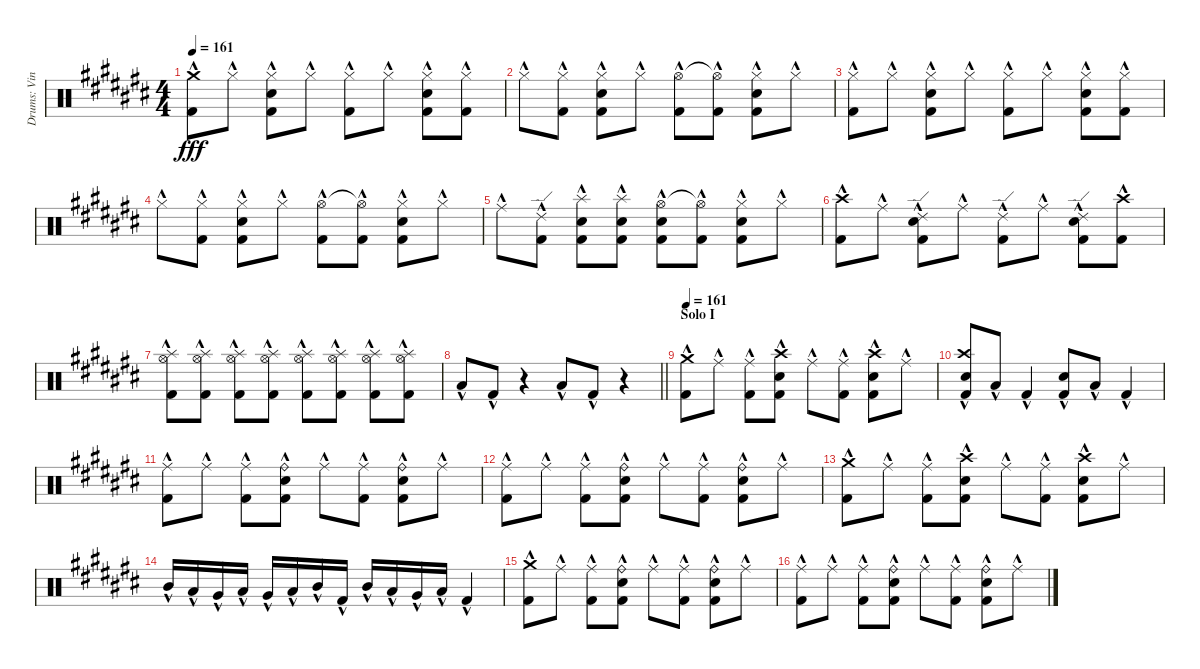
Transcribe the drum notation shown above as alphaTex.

\track ("Drums: Vinny" "Drums: Vin") {instrument percussion}
\staff {score}
\articulation defaults
\ts (4 4)
\tempo 161
\clef neutral
\ks c#
("Crash medium (hit)"{hac} "Kick (hit) 2"{hac}).8{dy fff} "Hi-Hat (closed)"{hac}.8 ("Hi-Hat (closed)"{hac} "Snare (hit) 2"{hac} "Kick (hit) 2"{hac}).8 "Hi-Hat (closed)"{hac}.8 ("Hi-Hat (closed)"{hac} "Kick (hit) 2"{hac}).8 "Hi-Hat (closed)"{hac}.8 ("Hi-Hat (closed)"{hac} "Snare (hit) 2"{hac} "Kick (hit) 2"{hac}).8 ("Hi-Hat (closed)"{hac} "Kick (hit) 2"{hac}).8 |
"Hi-Hat (closed)"{hac}.8 ("Hi-Hat (closed)"{hac} "Kick (hit) 2"{hac}).8 ("Hi-Hat (closed)"{hac} "Snare (hit) 2"{hac} "Kick (hit) 2"{hac}).8 "Hi-Hat (closed)"{hac}.8 ("Hi-Hat (open)"{hac} "Kick (hit) 2"{hac}).8 ("Hi-Hat (open)"{t} "Kick (hit) 2"{hac}).8 ("Hi-Hat (closed)"{hac} "Snare (hit) 2"{hac} "Kick (hit) 2"{hac}).8 "Hi-Hat (closed)"{hac}.8 |
("Hi-Hat (closed)"{hac} "Kick (hit) 2"{hac}).8 "Hi-Hat (closed)"{hac}.8 ("Hi-Hat (closed)"{hac} "Snare (hit) 2"{hac} "Kick (hit) 2"{hac}).8 "Hi-Hat (closed)"{hac}.8 ("Hi-Hat (closed)"{hac} "Kick (hit) 2"{hac}).8 "Hi-Hat (closed)"{hac}.8 ("Hi-Hat (closed)"{hac} "Snare (hit) 2"{hac} "Kick (hit) 2"{hac}).8 ("Hi-Hat (closed)"{hac} "Kick (hit) 2"{hac}).8 |
"Hi-Hat (closed)"{hac}.8 ("Hi-Hat (closed)"{hac} "Kick (hit) 2"{hac}).8 ("Hi-Hat (closed)"{hac} "Snare (hit) 2"{hac} "Kick (hit) 2"{hac}).8 "Hi-Hat (closed)"{hac}.8 ("Hi-Hat (open)"{hac} "Kick (hit) 2"{hac}).8 ("Hi-Hat (open)"{t} "Kick (hit) 2"{hac}).8 ("Hi-Hat (closed)"{hac} "Snare (hit) 2"{hac} "Kick (hit) 2"{hac}).8 "Hi-Hat (closed)"{hac}.8 |
"Ride (middle)"{hac}.8 ("Ride (edge) 2"{hac} "Kick (hit) 2"{hac}).8 ("Splash (hit)"{hac} "Snare (hit) 2"{hac} "Kick (hit) 2"{hac}).8 ("Splash (hit)"{hac} "Snare (hit) 2"{hac} "Kick (hit) 2"{hac}).8 ("Hi-Hat (open)"{hac} "Snare (hit) 2"{hac} "Kick (hit) 2"{hac}).8 ("Hi-Hat (open)"{t} "Kick (hit) 2"{hac}).8 ("Hi-Hat (closed)"{hac} "Snare (hit) 2"{hac} "Kick (hit) 2"{hac}).8 "Hi-Hat (closed)"{hac}.8 |
("Crash high (hit)"{hac} "Kick (hit) 2"{hac}).8 "Ride (middle)"{hac}.8 ("Ride (edge) 2"{hac} "Snare (hit) 2"{hac} "Kick (hit) 2"{hac}).8 "Ride (middle)"{hac}.8 ("Ride (edge) 2"{hac} "Kick (hit) 2"{hac}).8 "Ride (middle)"{hac}.8 ("Ride (edge) 2"{hac} "Snare (hit) 2"{hac} "Kick (hit) 2"{hac}).8 ("Crash high (hit)"{hac} "Kick (hit) 2"{hac}).8 |
("Splash (hit)"{hac} "Hi-Hat (open)"{hac} "Kick (hit) 2"{hac}).8 ("Splash (hit)"{hac} "Hi-Hat (open)"{hac} "Kick (hit) 2"{hac}).8 ("Splash (hit)"{hac} "Hi-Hat (open)"{hac} "Kick (hit) 2"{hac}).8 ("Splash (hit)"{hac} "Hi-Hat (open)"{hac} "Kick (hit) 2"{hac}).8 ("Splash (hit)"{hac} "Hi-Hat (open)"{hac} "Kick (hit) 2"{hac}).8 ("Splash (hit)"{hac} "Hi-Hat (open)"{hac} "Kick (hit) 2"{hac}).8 ("Splash (hit)"{hac} "Hi-Hat (open)"{hac} "Kick (hit) 2"{hac}).8 ("Splash (hit)"{hac} "Hi-Hat (open)"{hac} "Kick (hit) 2"{hac}).8 |
\barLineRight lightlight "Low Tom (hit)"{hac}.8 "Kick (hit) 2"{hac}.8
r.4 "Low Tom (hit)"{hac}.8 "Kick (hit) 2"{hac}.8 r.4 |
\section ("" "Solo I")
\tempo 161
("Crash medium (hit)"{hac} "Kick (hit) 2"{hac}).8 "Ride (middle)"{hac}.8 ("Ride (middle)"{hac} "Kick (hit) 2"{hac}).8 ("Crash high (hit)"{hac} "Snare (hit) 2"{hac} "Kick (hit) 2"{hac}).8 "Ride (middle)"{hac}.8 ("Ride (middle)"{hac} "Kick (hit) 2"{hac}).8 ("Crash high (hit)"{hac} "Snare (hit) 2"{hac} "Kick (hit) 2"{hac}).8 "Ride (middle)"{hac}.8 |
("Crash high (hit)"{hac} "Electric Snare (hit)"{hac} "Kick (hit) 2"{hac}).8 "Low Tom (hit)"{hac}.8 "Kick (hit) 2"{hac}.4 ("Electric Snare (hit)"{hac} "Kick (hit) 2"{hac}).8 "Low Tom (hit)"{hac}.8 "Kick (hit) 2"{hac}.4 |
("Ride (middle)"{hac} "Kick (hit) 2"{hac}).8 "Ride (middle)"{hac}.8 ("Ride (middle)"{hac} "Kick (hit) 2"{hac}).8 ("Ride (bell)"{hac} "Snare (hit) 2"{hac} "Kick (hit) 2"{hac}).8 "Ride (middle)"{hac}.8 ("Ride (middle)"{hac} "Kick (hit) 2"{hac}).8 ("Ride (bell)"{hac} "Snare (hit) 2"{hac} "Kick (hit) 2"{hac}).8 "Ride (middle)"{hac}.8 |
("Ride (middle)"{hac} "Kick (hit) 2"{hac}).8 "Ride (middle)"{hac}.8 ("Ride (middle)"{hac} "Kick (hit) 2"{hac}).8 ("Ride (bell)"{hac} "Snare (hit) 2"{hac} "Kick (hit) 2"{hac}).8 "Ride (middle)"{hac}.8 ("Ride (middle)"{hac} "Kick (hit) 2"{hac}).8 ("Ride (bell)"{hac} "Snare (hit) 2"{hac} "Kick (hit) 2"{hac}).8 "Ride (middle)"{hac}.8 |
("Crash medium (hit)"{hac} "Kick (hit) 2"{hac}).8 "Ride (middle)"{hac}.8 ("Ride (middle)"{hac} "Kick (hit) 2"{hac}).8 ("Crash high (hit)"{hac} "Snare (hit) 2"{hac} "Kick (hit) 2"{hac}).8 "Ride (middle)"{hac}.8 ("Ride (middle)"{hac} "Kick (hit) 2"{hac}).8 ("Crash high (hit)"{hac} "Snare (hit) 2"{hac} "Kick (hit) 2"{hac}).8 "Ride (middle)"{hac}.8 |
"Mid Tom (hit)"{hac}.16 "Low Tom (hit)"{hac}.16 "Very Low Tom (hit)"{hac}.16 "Low Floor Tom (hit)"{hac}.16 "Very Low Tom (hit)"{hac}.16 "Low Tom (hit)"{hac}.16 "Mid Tom (hit)"{hac}.16 "Kick (hit) 2"{hac}.16 "Mid Tom (hit)"{hac}.16 "Low Tom (hit)"{hac}.16 "Very Low Tom (hit)"{hac}.16 "Low Floor Tom (hit)"{hac}.16 "Kick (hit) 2"{hac}.4 |
("Crash medium (hit)"{hac} "Kick (hit) 2"{hac}).8 "Ride (middle)"{hac}.8 ("Ride (middle)"{hac} "Kick (hit) 2"{hac}).8 ("Ride (bell)"{hac} "Snare (hit) 2"{hac} "Kick (hit) 2"{hac}).8 "Ride (middle)"{hac}.8 ("Ride (middle)"{hac} "Kick (hit) 2"{hac}).8 ("Ride (bell)"{hac} "Snare (hit) 2"{hac} "Kick (hit) 2"{hac}).8 "Ride (middle)"{hac}.8 |
("Ride (middle)"{hac} "Kick (hit) 2"{hac}).8 "Ride (middle)"{hac}.8 ("Ride (middle)"{hac} "Kick (hit) 2"{hac}).8 ("Ride (bell)"{hac} "Snare (hit) 2"{hac} "Kick (hit) 2"{hac}).8 "Ride (middle)"{hac}.8 ("Ride (middle)"{hac} "Kick (hit) 2"{hac}).8 ("Ride (bell)"{hac} "Snare (hit) 2"{hac} "Kick (hit) 2"{hac}).8 "Ride (middle)"{hac}.8
